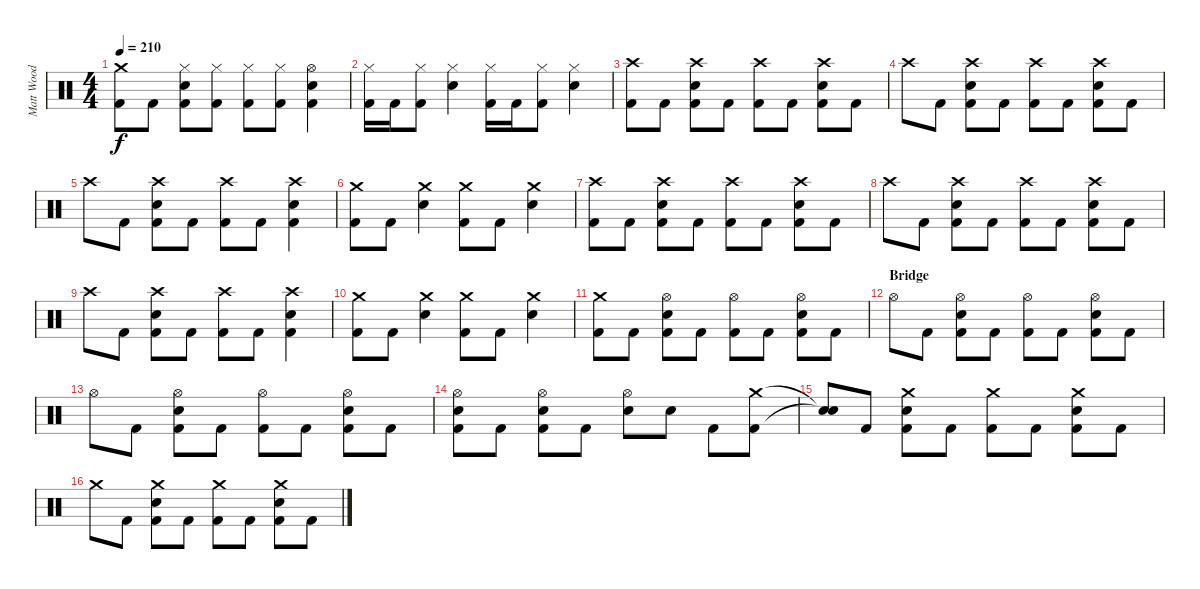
\track ("Matt Wood" "Matt Wood") {instrument percussion}
\staff {score}
\articulation defaults
\ts (4 4)
\tempo 210
\clef neutral
\ks c
("Crash medium (hit)"{t} "Kick (hit) 2"{t}).8{dy f} "Kick (hit) 2".8 ("Hi-Hat (closed)" "Snare (hit) 2" "Kick (hit) 2").8 ("Hi-Hat (closed)" "Kick (hit) 2").8 ("Hi-Hat (closed)" "Kick (hit) 2").8 ("Hi-Hat (closed)" "Kick (hit) 2").8 ("Hi-Hat (open)" "Snare (hit) 2" "Kick (hit) 2").4 |
("Hi-Hat (closed)" "Kick (hit) 2").16 "Kick (hit) 2".16 ("Hi-Hat (closed)" "Kick (hit) 2").8 ("Hi-Hat (closed)" "Snare (hit) 2").4 ("Hi-Hat (closed)" "Kick (hit) 2").16 "Kick (hit) 2".16 ("Hi-Hat (closed)" "Kick (hit) 2").8 ("Hi-Hat (closed)" "Snare (hit) 2").4 |
("Crash high (hit)" "Kick (hit) 2").8 "Kick (hit) 2".8 ("Crash high (hit)" "Snare (hit) 2" "Kick (hit) 2").8 "Kick (hit) 2".8 ("Crash high (hit)" "Kick (hit) 2").8 "Kick (hit) 2".8 ("Crash high (hit)" "Snare (hit) 2" "Kick (hit) 2").8 "Kick (hit) 2".8 |
"Crash high (hit)".8 "Kick (hit) 2".8 ("Crash high (hit)" "Snare (hit) 2" "Kick (hit) 2").8 "Kick (hit) 2".8 ("Crash high (hit)" "Kick (hit) 2").8 "Kick (hit) 2".8 ("Crash high (hit)" "Snare (hit) 2" "Kick (hit) 2").8 "Kick (hit) 2".8 |
"Crash high (hit)".8 "Kick (hit) 2".8 ("Crash high (hit)" "Snare (hit) 2" "Kick (hit) 2").8 "Kick (hit) 2".8 ("Crash high (hit)" "Kick (hit) 2").8 "Kick (hit) 2".8 ("Crash high (hit)" "Snare (hit) 2" "Kick (hit) 2").4 |
("Crash medium (hit)" "Kick (hit) 2").8 "Kick (hit) 2".8 ("Crash medium (hit)" "Snare (hit) 2").4 ("Crash medium (hit)" "Kick (hit) 2").8 "Kick (hit) 2".8 ("Crash medium (hit)" "Snare (hit) 2").4 |
("Crash high (hit)" "Kick (hit) 2").8 "Kick (hit) 2".8 ("Crash high (hit)" "Snare (hit) 2" "Kick (hit) 2").8 "Kick (hit) 2".8 ("Crash high (hit)" "Kick (hit) 2").8 "Kick (hit) 2".8 ("Crash high (hit)" "Snare (hit) 2" "Kick (hit) 2").8 "Kick (hit) 2".8 |
"Crash high (hit)".8 "Kick (hit) 2".8 ("Crash high (hit)" "Snare (hit) 2" "Kick (hit) 2").8 "Kick (hit) 2".8 ("Crash high (hit)" "Kick (hit) 2").8 "Kick (hit) 2".8 ("Crash high (hit)" "Snare (hit) 2" "Kick (hit) 2").8 "Kick (hit) 2".8 |
"Crash high (hit)".8 "Kick (hit) 2".8 ("Crash high (hit)" "Snare (hit) 2" "Kick (hit) 2").8 "Kick (hit) 2".8 ("Crash high (hit)" "Kick (hit) 2").8 "Kick (hit) 2".8 ("Crash high (hit)" "Snare (hit) 2" "Kick (hit) 2").4 |
("Crash medium (hit)" "Kick (hit) 2").8 "Kick (hit) 2".8 ("Crash medium (hit)" "Snare (hit) 2").4 ("Crash medium (hit)" "Kick (hit) 2").8 "Kick (hit) 2".8 ("Crash medium (hit)" "Snare (hit) 2").4 |
("Crash medium (hit)" "Kick (hit) 2").8 "Kick (hit) 2".8 ("Hi-Hat (open)" "Snare (hit) 2" "Kick (hit) 2").8 "Kick (hit) 2".8 ("Hi-Hat (open)" "Kick (hit) 2").8 "Kick (hit) 2".8 ("Hi-Hat (open)" "Snare (hit) 2" "Kick (hit) 2").8 "Kick (hit) 2".8 |
\section ("" "Bridge")
"Hi-Hat (open)".8 "Kick (hit) 2".8 ("Hi-Hat (open)" "Snare (hit) 2" "Kick (hit) 2").8 "Kick (hit) 2".8 ("Hi-Hat (open)" "Kick (hit) 2").8 "Kick (hit) 2".8 ("Hi-Hat (open)" "Snare (hit) 2" "Kick (hit) 2").8 "Kick (hit) 2".8 |
"Hi-Hat (open)".8 "Kick (hit) 2".8 ("Hi-Hat (open)" "Snare (hit) 2" "Kick (hit) 2").8 "Kick (hit) 2".8 ("Hi-Hat (open)" "Kick (hit) 2").8 "Kick (hit) 2".8 ("Hi-Hat (open)" "Snare (hit) 2" "Kick (hit) 2").8 "Kick (hit) 2".8 |
("Hi-Hat (open)" "Snare (hit) 2" "Kick (hit) 2").8 "Kick (hit) 2".8 ("Hi-Hat (open)" "Snare (hit) 2" "Kick (hit) 2").8 "Kick (hit) 2".8 ("Hi-Hat (open)" "Snare (hit) 2").8 "Snare (hit) 2".8 "Kick (hit) 2".8 ("Crash medium (hit)" "Kick (hit) 2").8 |
("Snare (hit)"{t} "Snare (hit)"{t}).8 "Kick (hit) 2".8 ("Crash medium (hit)" "Snare (hit) 2" "Kick (hit) 2").8 "Kick (hit) 2".8 ("Crash medium (hit)" "Kick (hit) 2").8 "Kick (hit) 2".8 ("Crash medium (hit)" "Snare (hit) 2" "Kick (hit) 2").8 "Kick (hit) 2".8 |
"Crash medium (hit)".8 "Kick (hit) 2".8 ("Crash medium (hit)" "Snare (hit) 2" "Kick (hit) 2").8 "Kick (hit) 2".8 ("Crash medium (hit)" "Kick (hit) 2").8 "Kick (hit) 2".8 ("Crash medium (hit)" "Snare (hit) 2" "Kick (hit) 2").8 "Kick (hit) 2".8
